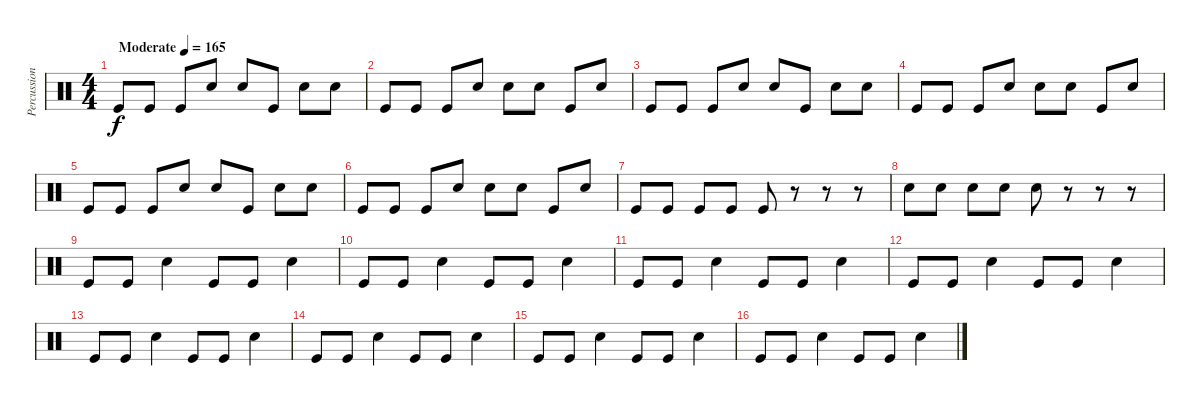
\track ("Percussion" "Percussion") {instrument percussion}
\staff {score}
\articulation defaults
\ts (4 4)
\tempo (165 "Moderate")
\clef neutral
\ks c "Kick (hit)".8{dy f} "Kick (hit)".8 "Kick (hit)".8 "Snare (hit) 2".8 "Snare (hit) 2".8 "Kick (hit)".8 "Snare (hit) 2".8 "Snare (hit) 2".8
|
"Kick (hit)".8 "Kick (hit)".8 "Kick (hit)".8 "Snare (hit) 2".8 "Snare (hit) 2".8 "Snare (hit) 2".8 "Kick (hit)".8 "Electric Snare (hit)".8 |
"Kick (hit)".8 "Kick (hit)".8 "Kick (hit)".8 "Snare (hit) 2".8 "Snare (hit) 2".8 "Kick (hit)".8 "Snare (hit) 2".8 "Snare (hit) 2".8 |
"Kick (hit)".8 "Kick (hit)".8 "Kick (hit)".8 "Snare (hit) 2".8 "Snare (hit) 2".8 "Snare (hit) 2".8 "Kick (hit)".8 "Electric Snare (hit)".8 |
"Kick (hit)".8 "Kick (hit)".8 "Kick (hit)".8 "Snare (hit) 2".8 "Snare (hit) 2".8 "Kick (hit)".8 "Snare (hit) 2".8 "Snare (hit) 2".8 |
"Kick (hit)".8 "Kick (hit)".8 "Kick (hit)".8 "Snare (hit) 2".8 "Snare (hit) 2".8 "Snare (hit) 2".8 "Kick (hit)".8 "Electric Snare (hit)".8 |
"Kick (hit)".8 "Kick (hit)".8 "Kick (hit)".8 "Kick (hit)".8 "Kick (hit)".8 r.8 r.8 r.8 |
"Snare (hit) 2".8 "Snare (hit) 2".8 "Snare (hit) 2".8 "Snare (hit) 2".8 "Snare (hit) 2".8 r.8 r.8 r.8 |
"Kick (hit)".8 "Kick (hit)".8 "Snare (hit) 2".4 "Kick (hit)".8 "Kick (hit)".8 "Snare (hit) 2".4 |
"Kick (hit)".8 "Kick (hit)".8 "Snare (hit) 2".4 "Kick (hit)".8 "Kick (hit)".8 "Snare (hit) 2".4 |
"Kick (hit)".8 "Kick (hit)".8 "Snare (hit) 2".4 "Kick (hit)".8 "Kick (hit)".8 "Snare (hit) 2".4 |
"Kick (hit)".8 "Kick (hit)".8 "Snare (hit) 2".4 "Kick (hit)".8 "Kick (hit)".8 "Snare (hit) 2".4 |
"Kick (hit)".8 "Kick (hit)".8 "Snare (hit) 2".4 "Kick (hit)".8 "Kick (hit)".8 "Snare (hit) 2".4 |
"Kick (hit)".8 "Kick (hit)".8 "Snare (hit) 2".4 "Kick (hit)".8 "Kick (hit)".8 "Snare (hit) 2".4 |
"Kick (hit)".8 "Kick (hit)".8 "Snare (hit) 2".4 "Kick (hit)".8 "Kick (hit)".8 "Snare (hit) 2".4 |
"Kick (hit)".8 "Kick (hit)".8 "Snare (hit) 2".4 "Kick (hit)".8 "Kick (hit)".8 "Snare (hit) 2".4
